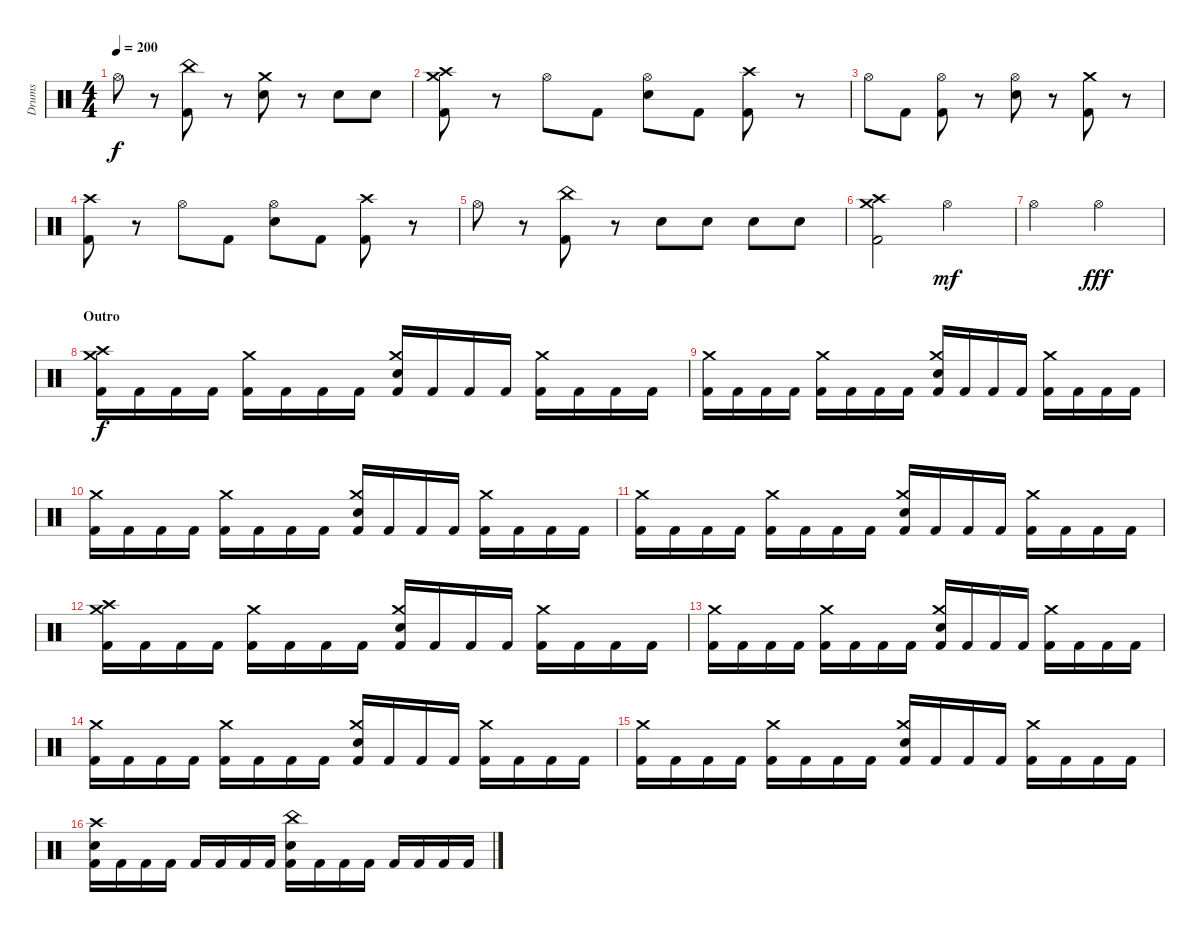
\track ("Drums" "Drums") {instrument percussion}
\staff {score}
\articulation defaults
\ts (4 4)
\tempo 200
\clef neutral
\ks c "Hi-Hat (open)".8{dy f}
r.8 ("China (hit)" "Kick (hit) 2").8 r.8 ("Crash medium (hit)" "Electric Snare (hit)").8 r.8 "Electric Snare (hit)".8 "Electric Snare (hit)".8 |
("Crash medium (hit)" "Crash high (hit)" "Kick (hit) 2").8 r.8 "Hi-Hat (open)".8 "Kick (hit) 2".8 ("Hi-Hat (open)" "Electric Snare (hit)").8 "Kick (hit) 2".8 ("Crash high (hit)" "Kick (hit) 2").8 r.8 |
"Hi-Hat (open)".8 "Kick (hit) 2".8 ("Hi-Hat (open)" "Kick (hit) 2").8 r.8 ("Hi-Hat (open)" "Electric Snare (hit)").8 r.8 ("Crash medium (hit)" "Kick (hit) 2").8 r.8 |
("Crash high (hit)" "Kick (hit) 2").8 r.8 "Hi-Hat (open)".8 "Kick (hit) 2".8 ("Hi-Hat (open)" "Electric Snare (hit)").8 "Kick (hit) 2".8 ("Crash high (hit)" "Kick (hit) 2").8 r.8 |
"Hi-Hat (open)".8 r.8 ("China (hit)" "Kick (hit) 2").8 r.8 "Electric Snare (hit)".8 "Electric Snare (hit)".8 "Electric Snare (hit)".8 "Electric Snare (hit)".8 |
("Crash high (hit)" "Crash medium (hit)" "Kick (hit) 2").2 "Hi-Hat (open)".2{dy mf} |
"Hi-Hat (open)".2 "Hi-Hat (open)".2{dy fff} |
\section ("" "Outro")
("Crash medium (hit)" "Crash high (hit)" "Kick (hit) 2").16{dy f} "Kick (hit) 2".16 "Kick (hit) 2".16 "Kick (hit) 2".16 ("Crash medium (hit)" "Kick (hit) 2").16 "Kick (hit) 2".16 "Kick (hit) 2".16 "Kick (hit) 2".16 ("Crash medium (hit)" "Electric Snare (hit)" "Kick (hit) 2").16 "Kick (hit) 2".16 "Kick (hit) 2".16 "Kick (hit) 2".16 ("Crash medium (hit)" "Kick (hit) 2").16 "Kick (hit) 2".16 "Kick (hit) 2".16 "Kick (hit) 2".16 |
("Crash medium (hit)" "Kick (hit) 2").16 "Kick (hit) 2".16 "Kick (hit) 2".16 "Kick (hit) 2".16 ("Crash medium (hit)" "Kick (hit) 2").16 "Kick (hit) 2".16 "Kick (hit) 2".16 "Kick (hit) 2".16 ("Crash medium (hit)" "Electric Snare (hit)" "Kick (hit) 2").16 "Kick (hit) 2".16 "Kick (hit) 2".16 "Kick (hit) 2".16 ("Crash medium (hit)" "Kick (hit) 2").16 "Kick (hit) 2".16 "Kick (hit) 2".16 "Kick (hit) 2".16 |
("Crash medium (hit)" "Kick (hit) 2").16 "Kick (hit) 2".16 "Kick (hit) 2".16 "Kick (hit) 2".16 ("Crash medium (hit)" "Kick (hit) 2").16 "Kick (hit) 2".16 "Kick (hit) 2".16 "Kick (hit) 2".16 ("Crash medium (hit)" "Electric Snare (hit)" "Kick (hit) 2").16 "Kick (hit) 2".16 "Kick (hit) 2".16 "Kick (hit) 2".16 ("Crash medium (hit)" "Kick (hit) 2").16 "Kick (hit) 2".16 "Kick (hit) 2".16 "Kick (hit) 2".16 |
("Crash medium (hit)" "Kick (hit) 2").16 "Kick (hit) 2".16 "Kick (hit) 2".16 "Kick (hit) 2".16 ("Crash medium (hit)" "Kick (hit) 2").16 "Kick (hit) 2".16 "Kick (hit) 2".16 "Kick (hit) 2".16 ("Crash medium (hit)" "Electric Snare (hit)" "Kick (hit) 2").16 "Kick (hit) 2".16 "Kick (hit) 2".16 "Kick (hit) 2".16 ("Crash medium (hit)" "Kick (hit) 2").16 "Kick (hit) 2".16 "Kick (hit) 2".16 "Kick (hit) 2".16 |
("Crash medium (hit)" "Crash high (hit)" "Kick (hit) 2").16 "Kick (hit) 2".16 "Kick (hit) 2".16 "Kick (hit) 2".16 ("Crash medium (hit)" "Kick (hit) 2").16 "Kick (hit) 2".16 "Kick (hit) 2".16 "Kick (hit) 2".16 ("Crash medium (hit)" "Electric Snare (hit)" "Kick (hit) 2").16 "Kick (hit) 2".16 "Kick (hit) 2".16 "Kick (hit) 2".16 ("Crash medium (hit)" "Kick (hit) 2").16 "Kick (hit) 2".16 "Kick (hit) 2".16 "Kick (hit) 2".16 |
("Crash medium (hit)" "Kick (hit) 2").16 "Kick (hit) 2".16 "Kick (hit) 2".16 "Kick (hit) 2".16 ("Crash medium (hit)" "Kick (hit) 2").16 "Kick (hit) 2".16 "Kick (hit) 2".16 "Kick (hit) 2".16 ("Crash medium (hit)" "Electric Snare (hit)" "Kick (hit) 2").16 "Kick (hit) 2".16 "Kick (hit) 2".16 "Kick (hit) 2".16 ("Crash medium (hit)" "Kick (hit) 2").16 "Kick (hit) 2".16 "Kick (hit) 2".16 "Kick (hit) 2".16 |
("Crash medium (hit)" "Kick (hit) 2").16 "Kick (hit) 2".16 "Kick (hit) 2".16 "Kick (hit) 2".16 ("Crash medium (hit)" "Kick (hit) 2").16 "Kick (hit) 2".16 "Kick (hit) 2".16 "Kick (hit) 2".16 ("Crash medium (hit)" "Electric Snare (hit)" "Kick (hit) 2").16 "Kick (hit) 2".16 "Kick (hit) 2".16 "Kick (hit) 2".16 ("Crash medium (hit)" "Kick (hit) 2").16 "Kick (hit) 2".16 "Kick (hit) 2".16 "Kick (hit) 2".16 |
("Crash medium (hit)" "Kick (hit) 2").16 "Kick (hit) 2".16 "Kick (hit) 2".16 "Kick (hit) 2".16 ("Crash medium (hit)" "Kick (hit) 2").16 "Kick (hit) 2".16 "Kick (hit) 2".16 "Kick (hit) 2".16 ("Crash medium (hit)" "Electric Snare (hit)" "Kick (hit) 2").16 "Kick (hit) 2".16 "Kick (hit) 2".16 "Kick (hit) 2".16 ("Crash medium (hit)" "Kick (hit) 2").16 "Kick (hit) 2".16 "Kick (hit) 2".16 "Kick (hit) 2".16 |
("Crash high (hit)" "Electric Snare (hit)" "Kick (hit) 2").16 "Kick (hit) 2".16 "Kick (hit) 2".16 "Kick (hit) 2".16 "Kick (hit) 2".16 "Kick (hit) 2".16 "Kick (hit) 2".16 "Kick (hit) 2".16 ("China (hit)" "Electric Snare (hit)" "Kick (hit) 2").16 "Kick (hit) 2".16 "Kick (hit) 2".16 "Kick (hit) 2".16 "Kick (hit) 2".16 "Kick (hit) 2".16 "Kick (hit) 2".16 "Kick (hit) 2".16
